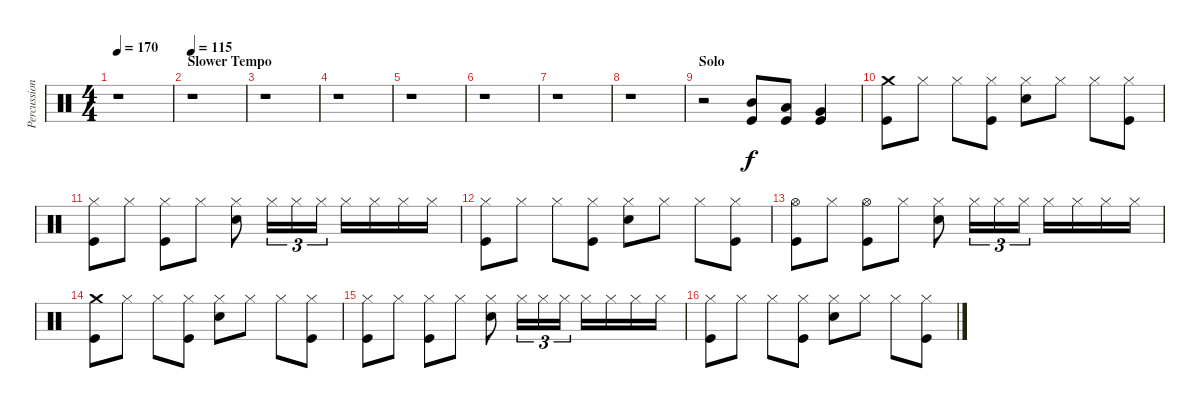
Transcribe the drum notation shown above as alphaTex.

\track ("Percussion" "Percussion") {instrument percussion}
\staff {score}
\articulation defaults
\ts (4 4)
\tempo 170
\clef neutral
\ks c
r.1{dy f} |
\section ("" "Slower Tempo")
\tempo 115
r.1 |
r.1 |
r.1 |
r.1 |
r.1 |
r.1 |
r.1 |
\section ("" "Solo")
r.2 ("Mid Tom (hit)" "Kick (hit)").8 ("Low Tom (hit)" "Kick (hit)").8 ("Very Low Tom (hit)" "Kick (hit)").4 |
("Crash medium (hit)" "Kick (hit)").8 "Hi-Hat (closed)".8 "Hi-Hat (closed)".8 ("Hi-Hat (closed)" "Kick (hit)").8 ("Hi-Hat (closed)" "Snare (hit) 2").8 "Hi-Hat (closed)".8 "Hi-Hat (closed)".8 ("Hi-Hat (closed)" "Kick (hit)").8 |
("Hi-Hat (closed)" "Kick (hit)").8 "Hi-Hat (closed)".8 ("Hi-Hat (closed)" "Kick (hit)").8 "Hi-Hat (closed)".8 ("Hi-Hat (closed)" "Snare (hit) 2").8 "Hi-Hat (closed)".16{tu (3 2)} "Hi-Hat (closed)".16{tu (3 2)} "Hi-Hat (closed)".16{tu (3 2)} "Hi-Hat (closed)".16 "Hi-Hat (closed)".16 "Hi-Hat (closed)".16 "Hi-Hat (closed)".16 |
("Hi-Hat (closed)" "Kick (hit)").8 "Hi-Hat (closed)".8 "Hi-Hat (closed)".8 ("Hi-Hat (closed)" "Kick (hit)").8 ("Hi-Hat (closed)" "Snare (hit) 2").8 "Hi-Hat (closed)".8 "Hi-Hat (closed)".8 ("Hi-Hat (closed)" "Kick (hit)").8 |
("Hi-Hat (open)" "Kick (hit)").8 "Hi-Hat (closed)".8 ("Hi-Hat (open)" "Kick (hit)").8 "Hi-Hat (closed)".8 ("Hi-Hat (closed)" "Snare (hit) 2").8 "Hi-Hat (closed)".16{tu (3 2)} "Hi-Hat (closed)".16{tu (3 2)} "Hi-Hat (closed)".16{tu (3 2)} "Hi-Hat (closed)".16 "Hi-Hat (closed)".16 "Hi-Hat (closed)".16 "Hi-Hat (closed)".16 |
("Crash medium (hit)" "Kick (hit)").8 "Hi-Hat (closed)".8 "Hi-Hat (closed)".8 ("Hi-Hat (closed)" "Kick (hit)").8 ("Hi-Hat (closed)" "Snare (hit) 2").8 "Hi-Hat (closed)".8 "Hi-Hat (closed)".8 ("Hi-Hat (closed)" "Kick (hit)").8 |
("Hi-Hat (closed)" "Kick (hit)").8 "Hi-Hat (closed)".8 ("Hi-Hat (closed)" "Kick (hit)").8 "Hi-Hat (closed)".8 ("Hi-Hat (closed)" "Snare (hit) 2").8 "Hi-Hat (closed)".16{tu (3 2)} "Hi-Hat (closed)".16{tu (3 2)} "Hi-Hat (closed)".16{tu (3 2)} "Hi-Hat (closed)".16 "Hi-Hat (closed)".16 "Hi-Hat (closed)".16 "Hi-Hat (closed)".16 |
("Hi-Hat (closed)" "Kick (hit)").8 "Hi-Hat (closed)".8 "Hi-Hat (closed)".8 ("Hi-Hat (closed)" "Kick (hit)").8 ("Hi-Hat (closed)" "Snare (hit) 2").8 "Hi-Hat (closed)".8 "Hi-Hat (closed)".8 ("Hi-Hat (closed)" "Kick (hit)").8
